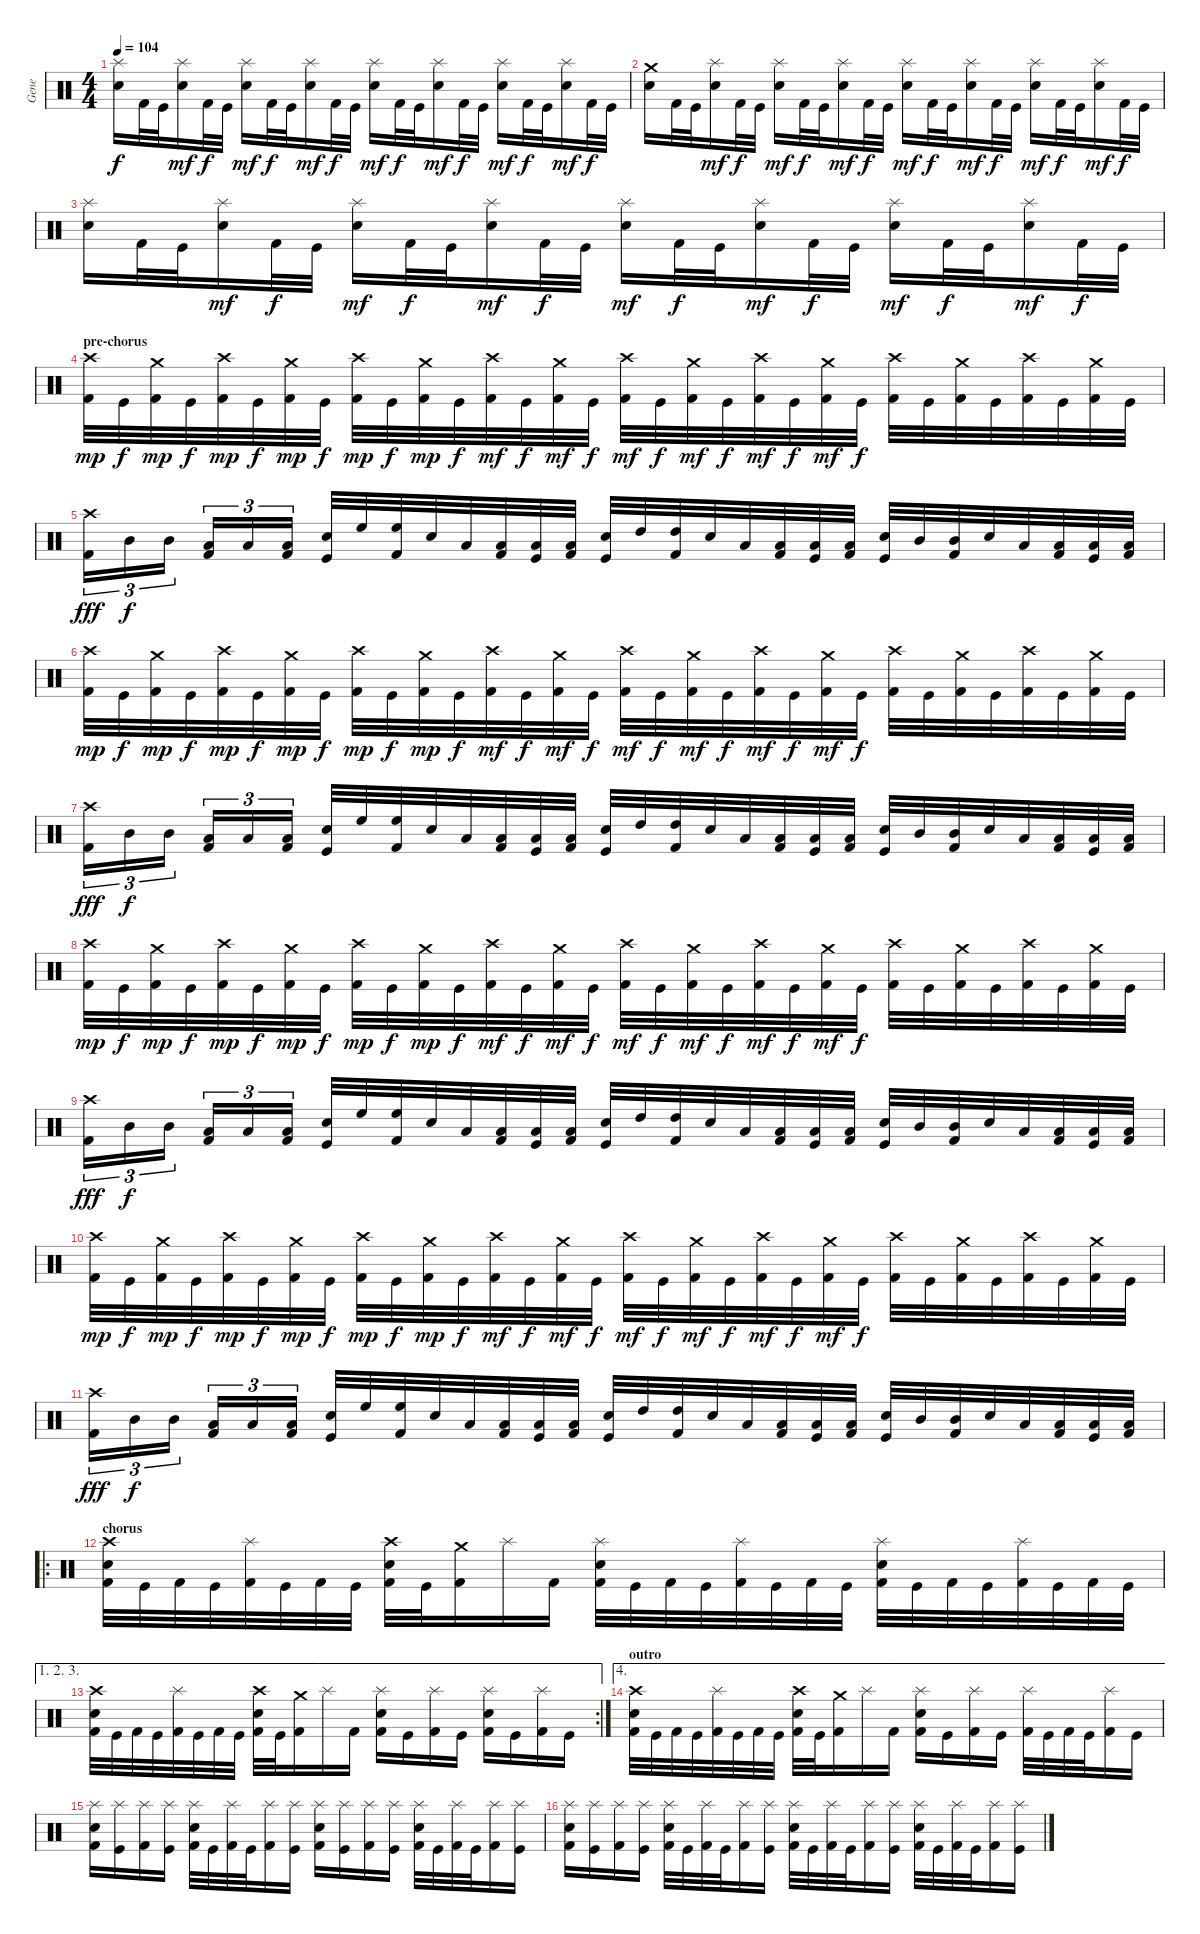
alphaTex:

\track ("Gene" "Gene") {instrument percussion}
\staff {score}
\articulation defaults
\ts (4 4)
\tempo 104
\clef neutral
\ks c
("Splash (hit)" "Snare (hit) 2").16{dy f} "Kick (hit) 2".32 "Kick (hit)".32 ("Splash (hit)" "Snare (hit) 2").16{dy mf} "Kick (hit) 2".32{dy f} "Kick (hit)".32 ("Splash (hit)" "Snare (hit) 2").16{dy mf} "Kick (hit) 2".32{dy f} "Kick (hit)".32 ("Splash (hit)" "Snare (hit) 2").16{dy mf} "Kick (hit) 2".32{dy f} "Kick (hit)".32 ("Splash (hit)" "Snare (hit) 2").16{dy mf} "Kick (hit) 2".32{dy f} "Kick (hit)".32 ("Splash (hit)" "Snare (hit) 2").16{dy mf} "Kick (hit) 2".32{dy f} "Kick (hit)".32 ("Splash (hit)" "Snare (hit) 2").16{dy mf} "Kick (hit) 2".32{dy f} "Kick (hit)".32 ("Splash (hit)" "Snare (hit) 2").16{dy mf} "Kick (hit) 2".32{dy f} "Kick (hit)".32 |
("Crash medium (hit)" "Snare (hit) 2").16 "Kick (hit) 2".32 "Kick (hit)".32 ("Splash (hit)" "Snare (hit) 2").16{dy mf} "Kick (hit) 2".32{dy f} "Kick (hit)".32 ("Splash (hit)" "Snare (hit) 2").16{dy mf} "Kick (hit) 2".32{dy f} "Kick (hit)".32 ("Splash (hit)" "Snare (hit) 2").16{dy mf} "Kick (hit) 2".32{dy f} "Kick (hit)".32 ("Splash (hit)" "Snare (hit) 2").16{dy mf} "Kick (hit) 2".32{dy f} "Kick (hit)".32 ("Splash (hit)" "Snare (hit) 2").16{dy mf} "Kick (hit) 2".32{dy f} "Kick (hit)".32 ("Splash (hit)" "Snare (hit) 2").16{dy mf} "Kick (hit) 2".32{dy f} "Kick (hit)".32 ("Splash (hit)" "Snare (hit) 2").16{dy mf} "Kick (hit) 2".32{dy f} "Kick (hit)".32 |
("Splash (hit)" "Snare (hit) 2").16 "Kick (hit) 2".32 "Kick (hit)".32 ("Splash (hit)" "Snare (hit) 2").16{dy mf} "Kick (hit) 2".32{dy f} "Kick (hit)".32 ("Splash (hit)" "Snare (hit) 2").16{dy mf} "Kick (hit) 2".32{dy f} "Kick (hit)".32 ("Splash (hit)" "Snare (hit) 2").16{dy mf} "Kick (hit) 2".32{dy f} "Kick (hit)".32 ("Splash (hit)" "Snare (hit) 2").16{dy mf} "Kick (hit) 2".32{dy f} "Kick (hit)".32 ("Splash (hit)" "Snare (hit) 2").16{dy mf} "Kick (hit) 2".32{dy f} "Kick (hit)".32 ("Splash (hit)" "Snare (hit) 2").16{dy mf} "Kick (hit) 2".32{dy f} "Kick (hit)".32 ("Splash (hit)" "Snare (hit) 2").16{dy mf} "Kick (hit) 2".32{dy f} "Kick (hit)".32 |
\section ("" "pre-chorus")
("Crash high (hit)" "Kick (hit) 2").32{dy mp} "Kick (hit)".32{dy f} ("Crash medium (hit)" "Kick (hit) 2").32{dy mp} "Kick (hit)".32{dy f} ("Crash high (hit)" "Kick (hit) 2").32{dy mp} "Kick (hit)".32{dy f} ("Crash medium (hit)" "Kick (hit) 2").32{dy mp} "Kick (hit)".32{dy f} ("Crash high (hit)" "Kick (hit) 2").32{dy mp} "Kick (hit)".32{dy f} ("Crash medium (hit)" "Kick (hit) 2").32{dy mp} "Kick (hit)".32{dy f} ("Crash high (hit)" "Kick (hit) 2").32{dy mf} "Kick (hit)".32{dy f} ("Crash medium (hit)" "Kick (hit) 2").32{dy mf} "Kick (hit)".32{dy f} ("Crash high (hit)" "Kick (hit) 2").32{dy mf} "Kick (hit)".32{dy f} ("Crash medium (hit)" "Kick (hit) 2").32{dy mf} "Kick (hit)".32{dy f} ("Crash high (hit)" "Kick (hit) 2").32{dy mf} "Kick (hit)".32{dy f} ("Crash medium (hit)" "Kick (hit) 2").32{dy mf} "Kick (hit)".32{dy f} ("Crash high (hit)" "Kick (hit) 2").32 "Kick (hit)".32 ("Crash medium (hit)" "Kick (hit) 2").32 "Kick (hit)".32 ("Crash high (hit)" "Kick (hit) 2").32 "Kick (hit)".32 ("Crash medium (hit)" "Kick (hit) 2").32 "Kick (hit)".32 |
("Crash high (hit)" "Kick (hit) 2").16{tu (3 2) dy fff} "Mid Tom (hit)".16{tu (3 2) dy f} "Mid Tom (hit)".16{tu (3 2)} ("Low Tom (hit)" "Kick (hit) 2").16{tu (3 2)} "Low Tom (hit)".16{tu (3 2)} ("Low Tom (hit)" "Kick (hit) 2").16{tu (3 2)} ("Electric Snare (hit)" "Kick (hit)").32 "High Floor Tom (hit)".32 ("High Floor Tom (hit)" "Kick (hit) 2").32 "Electric Snare (hit)".32 "Low Tom (hit)".32 ("Low Tom (hit)" "Kick (hit) 2").32 ("Low Tom (hit)" "Kick (hit)").32 ("Low Tom (hit)" "Kick (hit) 2").32 ("Electric Snare (hit)" "Kick (hit)").32 "High Tom (hit)".32 ("High Tom (hit)" "Kick (hit) 2").32 "Electric Snare (hit)".32 "Low Tom (hit)".32 ("Low Tom (hit)" "Kick (hit) 2").32 ("Low Tom (hit)" "Kick (hit)").32 ("Low Tom (hit)" "Kick (hit) 2").32 ("Electric Snare (hit)" "Kick (hit)").32 "Mid Tom (hit)".32 ("Mid Tom (hit)" "Kick (hit) 2").32 "Electric Snare (hit)".32 "Low Tom (hit)".32 ("Low Tom (hit)" "Kick (hit) 2").32 ("Low Tom (hit)" "Kick (hit)").32 ("Low Tom (hit)" "Kick (hit) 2").32 |
("Crash high (hit)" "Kick (hit) 2").32{dy mp} "Kick (hit)".32{dy f} ("Crash medium (hit)" "Kick (hit) 2").32{dy mp} "Kick (hit)".32{dy f} ("Crash high (hit)" "Kick (hit) 2").32{dy mp} "Kick (hit)".32{dy f} ("Crash medium (hit)" "Kick (hit) 2").32{dy mp} "Kick (hit)".32{dy f} ("Crash high (hit)" "Kick (hit) 2").32{dy mp} "Kick (hit)".32{dy f} ("Crash medium (hit)" "Kick (hit) 2").32{dy mp} "Kick (hit)".32{dy f} ("Crash high (hit)" "Kick (hit) 2").32{dy mf} "Kick (hit)".32{dy f} ("Crash medium (hit)" "Kick (hit) 2").32{dy mf} "Kick (hit)".32{dy f} ("Crash high (hit)" "Kick (hit) 2").32{dy mf} "Kick (hit)".32{dy f} ("Crash medium (hit)" "Kick (hit) 2").32{dy mf} "Kick (hit)".32{dy f} ("Crash high (hit)" "Kick (hit) 2").32{dy mf} "Kick (hit)".32{dy f} ("Crash medium (hit)" "Kick (hit) 2").32{dy mf} "Kick (hit)".32{dy f} ("Crash high (hit)" "Kick (hit) 2").32 "Kick (hit)".32 ("Crash medium (hit)" "Kick (hit) 2").32 "Kick (hit)".32 ("Crash high (hit)" "Kick (hit) 2").32 "Kick (hit)".32 ("Crash medium (hit)" "Kick (hit) 2").32 "Kick (hit)".32 |
("Crash high (hit)" "Kick (hit) 2").16{tu (3 2) dy fff} "Mid Tom (hit)".16{tu (3 2) dy f} "Mid Tom (hit)".16{tu (3 2)} ("Low Tom (hit)" "Kick (hit) 2").16{tu (3 2)} "Low Tom (hit)".16{tu (3 2)} ("Low Tom (hit)" "Kick (hit) 2").16{tu (3 2)} ("Electric Snare (hit)" "Kick (hit)").32 "High Floor Tom (hit)".32 ("High Floor Tom (hit)" "Kick (hit) 2").32 "Electric Snare (hit)".32 "Low Tom (hit)".32 ("Low Tom (hit)" "Kick (hit) 2").32 ("Low Tom (hit)" "Kick (hit)").32 ("Low Tom (hit)" "Kick (hit) 2").32 ("Electric Snare (hit)" "Kick (hit)").32 "High Tom (hit)".32 ("High Tom (hit)" "Kick (hit) 2").32 "Electric Snare (hit)".32 "Low Tom (hit)".32 ("Low Tom (hit)" "Kick (hit) 2").32 ("Low Tom (hit)" "Kick (hit)").32 ("Low Tom (hit)" "Kick (hit) 2").32 ("Electric Snare (hit)" "Kick (hit)").32 "Mid Tom (hit)".32 ("Mid Tom (hit)" "Kick (hit) 2").32 "Electric Snare (hit)".32 "Low Tom (hit)".32 ("Low Tom (hit)" "Kick (hit) 2").32 ("Low Tom (hit)" "Kick (hit)").32 ("Low Tom (hit)" "Kick (hit) 2").32 |
("Crash high (hit)" "Kick (hit) 2").32{dy mp} "Kick (hit)".32{dy f} ("Crash medium (hit)" "Kick (hit) 2").32{dy mp} "Kick (hit)".32{dy f} ("Crash high (hit)" "Kick (hit) 2").32{dy mp} "Kick (hit)".32{dy f} ("Crash medium (hit)" "Kick (hit) 2").32{dy mp} "Kick (hit)".32{dy f} ("Crash high (hit)" "Kick (hit) 2").32{dy mp} "Kick (hit)".32{dy f} ("Crash medium (hit)" "Kick (hit) 2").32{dy mp} "Kick (hit)".32{dy f} ("Crash high (hit)" "Kick (hit) 2").32{dy mf} "Kick (hit)".32{dy f} ("Crash medium (hit)" "Kick (hit) 2").32{dy mf} "Kick (hit)".32{dy f} ("Crash high (hit)" "Kick (hit) 2").32{dy mf} "Kick (hit)".32{dy f} ("Crash medium (hit)" "Kick (hit) 2").32{dy mf} "Kick (hit)".32{dy f} ("Crash high (hit)" "Kick (hit) 2").32{dy mf} "Kick (hit)".32{dy f} ("Crash medium (hit)" "Kick (hit) 2").32{dy mf} "Kick (hit)".32{dy f} ("Crash high (hit)" "Kick (hit) 2").32 "Kick (hit)".32 ("Crash medium (hit)" "Kick (hit) 2").32 "Kick (hit)".32 ("Crash high (hit)" "Kick (hit) 2").32 "Kick (hit)".32 ("Crash medium (hit)" "Kick (hit) 2").32 "Kick (hit)".32 |
("Crash high (hit)" "Kick (hit) 2").16{tu (3 2) dy fff} "Mid Tom (hit)".16{tu (3 2) dy f} "Mid Tom (hit)".16{tu (3 2)} ("Low Tom (hit)" "Kick (hit) 2").16{tu (3 2)} "Low Tom (hit)".16{tu (3 2)} ("Low Tom (hit)" "Kick (hit) 2").16{tu (3 2)} ("Electric Snare (hit)" "Kick (hit)").32 "High Floor Tom (hit)".32 ("High Floor Tom (hit)" "Kick (hit) 2").32 "Electric Snare (hit)".32 "Low Tom (hit)".32 ("Low Tom (hit)" "Kick (hit) 2").32 ("Low Tom (hit)" "Kick (hit)").32 ("Low Tom (hit)" "Kick (hit) 2").32 ("Electric Snare (hit)" "Kick (hit)").32 "High Tom (hit)".32 ("High Tom (hit)" "Kick (hit) 2").32 "Electric Snare (hit)".32 "Low Tom (hit)".32 ("Low Tom (hit)" "Kick (hit) 2").32 ("Low Tom (hit)" "Kick (hit)").32 ("Low Tom (hit)" "Kick (hit) 2").32 ("Electric Snare (hit)" "Kick (hit)").32 "Mid Tom (hit)".32 ("Mid Tom (hit)" "Kick (hit) 2").32 "Electric Snare (hit)".32 "Low Tom (hit)".32 ("Low Tom (hit)" "Kick (hit) 2").32 ("Low Tom (hit)" "Kick (hit)").32 ("Low Tom (hit)" "Kick (hit) 2").32 |
("Crash high (hit)" "Kick (hit) 2").32{dy mp} "Kick (hit)".32{dy f} ("Crash medium (hit)" "Kick (hit) 2").32{dy mp} "Kick (hit)".32{dy f} ("Crash high (hit)" "Kick (hit) 2").32{dy mp} "Kick (hit)".32{dy f} ("Crash medium (hit)" "Kick (hit) 2").32{dy mp} "Kick (hit)".32{dy f} ("Crash high (hit)" "Kick (hit) 2").32{dy mp} "Kick (hit)".32{dy f} ("Crash medium (hit)" "Kick (hit) 2").32{dy mp} "Kick (hit)".32{dy f} ("Crash high (hit)" "Kick (hit) 2").32{dy mf} "Kick (hit)".32{dy f} ("Crash medium (hit)" "Kick (hit) 2").32{dy mf} "Kick (hit)".32{dy f} ("Crash high (hit)" "Kick (hit) 2").32{dy mf} "Kick (hit)".32{dy f} ("Crash medium (hit)" "Kick (hit) 2").32{dy mf} "Kick (hit)".32{dy f} ("Crash high (hit)" "Kick (hit) 2").32{dy mf} "Kick (hit)".32{dy f} ("Crash medium (hit)" "Kick (hit) 2").32{dy mf} "Kick (hit)".32{dy f} ("Crash high (hit)" "Kick (hit) 2").32 "Kick (hit)".32 ("Crash medium (hit)" "Kick (hit) 2").32 "Kick (hit)".32 ("Crash high (hit)" "Kick (hit) 2").32 "Kick (hit)".32 ("Crash medium (hit)" "Kick (hit) 2").32 "Kick (hit)".32 |
("Crash high (hit)" "Kick (hit) 2").16{tu (3 2) dy fff} "Mid Tom (hit)".16{tu (3 2) dy f} "Mid Tom (hit)".16{tu (3 2)} ("Low Tom (hit)" "Kick (hit) 2").16{tu (3 2)} "Low Tom (hit)".16{tu (3 2)} ("Low Tom (hit)" "Kick (hit) 2").16{tu (3 2)} ("Electric Snare (hit)" "Kick (hit)").32 "High Floor Tom (hit)".32 ("High Floor Tom (hit)" "Kick (hit) 2").32 "Electric Snare (hit)".32 "Low Tom (hit)".32 ("Low Tom (hit)" "Kick (hit) 2").32 ("Low Tom (hit)" "Kick (hit)").32 ("Low Tom (hit)" "Kick (hit) 2").32 ("Electric Snare (hit)" "Kick (hit)").32 "High Tom (hit)".32 ("High Tom (hit)" "Kick (hit) 2").32 "Electric Snare (hit)".32 "Low Tom (hit)".32 ("Low Tom (hit)" "Kick (hit) 2").32 ("Low Tom (hit)" "Kick (hit)").32 ("Low Tom (hit)" "Kick (hit) 2").32 ("Electric Snare (hit)" "Kick (hit)").32 "Mid Tom (hit)".32 ("Mid Tom (hit)" "Kick (hit) 2").32 "Electric Snare (hit)".32 "Low Tom (hit)".32 ("Low Tom (hit)" "Kick (hit) 2").32 ("Low Tom (hit)" "Kick (hit)").32 ("Low Tom (hit)" "Kick (hit) 2").32 |
\ro
\section ("" "chorus")
("Crash high (hit)" "Snare (hit) 2" "Kick (hit) 2").32 "Kick (hit)".32 "Kick (hit) 2".32 "Kick (hit)".32 ("Splash (hit)" "Kick (hit) 2").32 "Kick (hit)".32 "Kick (hit) 2".32 "Kick (hit)".32 ("Crash high (hit)" "Snare (hit) 2" "Kick (hit) 2").32 "Kick (hit)".32 ("Crash medium (hit)" "Kick (hit) 2").16 "Splash (hit)".16 "Kick (hit) 2".16 ("Splash (hit)" "Snare (hit) 2" "Kick (hit) 2").32 "Kick (hit)".32 "Kick (hit) 2".32 "Kick (hit)".32 ("Splash (hit)" "Kick (hit) 2").32 "Kick (hit)".32 "Kick (hit) 2".32 "Kick (hit)".32 ("Splash (hit)" "Snare (hit) 2" "Kick (hit) 2").32 "Kick (hit)".32 "Kick (hit) 2".32 "Kick (hit)".32 ("Splash (hit)" "Kick (hit) 2").32 "Kick (hit)".32 "Kick (hit) 2".32 "Kick (hit)".32 |
\ae (1 2 3)
\rc 2
("Crash high (hit)" "Snare (hit) 2" "Kick (hit) 2").32 "Kick (hit)".32 "Kick (hit) 2".32 "Kick (hit)".32 ("Splash (hit)" "Kick (hit) 2").32 "Kick (hit)".32 "Kick (hit) 2".32 "Kick (hit)".32 ("Crash high (hit)" "Snare (hit) 2" "Kick (hit) 2").32 "Kick (hit)".32 ("Crash medium (hit)" "Kick (hit) 2").16 "Splash (hit)".16 "Kick (hit) 2".16 ("Splash (hit)" "Snare (hit) 2" "Kick (hit) 2").16 "Kick (hit)".16 ("Splash (hit)" "Kick (hit) 2").16 "Kick (hit)".16 ("Splash (hit)" "Snare (hit) 2" "Kick (hit) 2").16 "Kick (hit)".16 ("Splash (hit)" "Kick (hit) 2").16 "Kick (hit)".16 |
\ae 4
\section ("" "outro")
("Crash high (hit)" "Snare (hit) 2" "Kick (hit) 2").32 "Kick (hit)".32 "Kick (hit) 2".32 "Kick (hit)".32 ("Splash (hit)" "Kick (hit) 2").32 "Kick (hit)".32 "Kick (hit) 2".32 "Kick (hit)".32 ("Crash high (hit)" "Snare (hit) 2" "Kick (hit) 2").32 "Kick (hit)".32 ("Crash medium (hit)" "Kick (hit) 2").16 "Splash (hit)".16 "Kick (hit) 2".16 ("Splash (hit)" "Snare (hit) 2" "Kick (hit) 2").16 "Kick (hit)".16 ("Splash (hit)" "Kick (hit) 2").16 "Kick (hit)".16 ("Splash (hit)" "Kick (hit) 2").32 "Kick (hit)".32 "Kick (hit) 2".32 "Kick (hit)".32 ("Splash (hit)" "Kick (hit) 2").16 "Kick (hit)".16 |
("Splash (hit)" "Snare (hit) 2" "Kick (hit) 2").16 ("Splash (hit)" "Kick (hit)").16 ("Splash (hit)" "Kick (hit) 2").16 ("Splash (hit)" "Kick (hit)").16 ("Splash (hit)" "Snare (hit) 2" "Kick (hit) 2").32 "Kick (hit)".32 ("Splash (hit)" "Kick (hit) 2").32 "Kick (hit)".32 ("Splash (hit)" "Kick (hit) 2").16 ("Splash (hit)" "Kick (hit)").16 ("Splash (hit)" "Snare (hit) 2" "Kick (hit) 2").16 ("Splash (hit)" "Kick (hit)").16 ("Splash (hit)" "Kick (hit) 2").16 ("Splash (hit)" "Kick (hit)").16 ("Splash (hit)" "Snare (hit) 2" "Kick (hit) 2").32 "Kick (hit)".32 ("Splash (hit)" "Kick (hit) 2").32 "Kick (hit)".32 ("Splash (hit)" "Kick (hit) 2").16 ("Splash (hit)" "Kick (hit)").16 |
("Splash (hit)" "Snare (hit) 2" "Kick (hit) 2").16 ("Splash (hit)" "Kick (hit)").16 ("Splash (hit)" "Kick (hit) 2").16 ("Splash (hit)" "Kick (hit)").16 ("Splash (hit)" "Snare (hit) 2" "Kick (hit) 2").32 "Kick (hit)".32 ("Splash (hit)" "Kick (hit) 2").32 "Kick (hit)".32 ("Splash (hit)" "Kick (hit) 2").16 ("Splash (hit)" "Kick (hit)").16 ("Splash (hit)" "Snare (hit) 2" "Kick (hit) 2").32 "Kick (hit)".32 ("Splash (hit)" "Kick (hit) 2").32 "Kick (hit)".32 ("Splash (hit)" "Kick (hit) 2").16 ("Splash (hit)" "Kick (hit)").16 ("Splash (hit)" "Snare (hit) 2" "Kick (hit) 2").32 "Kick (hit)".32 ("Splash (hit)" "Kick (hit) 2").32 "Kick (hit)".32 ("Splash (hit)" "Kick (hit) 2").16 ("Splash (hit)" "Kick (hit)").16
